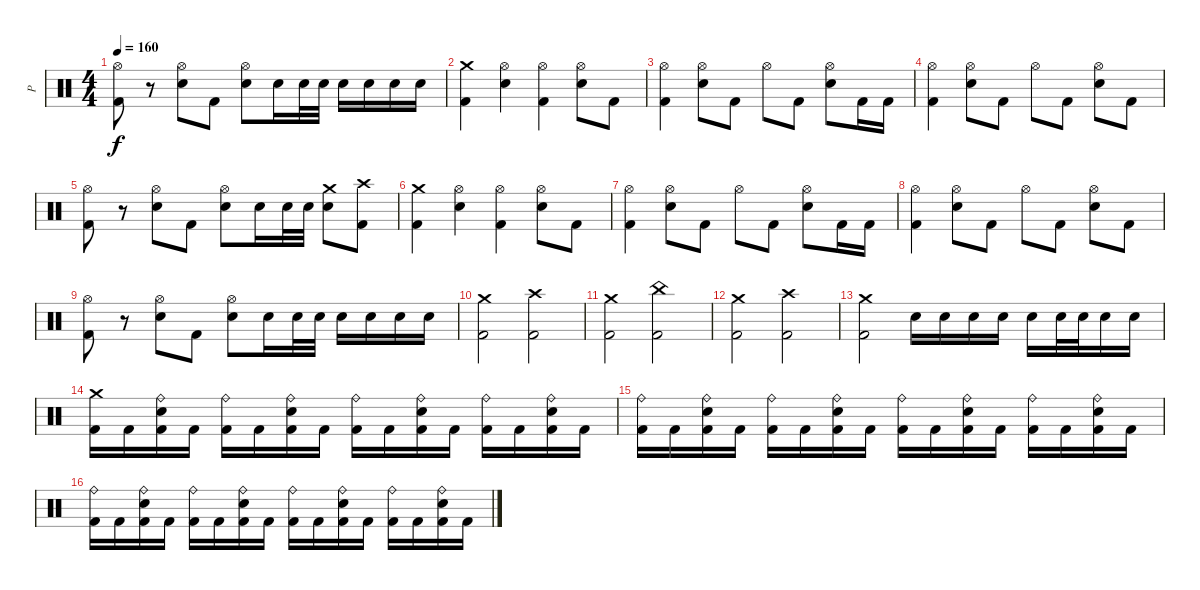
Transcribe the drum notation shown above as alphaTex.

\track ("P" "P") {instrument percussion}
\staff {score}
\articulation defaults
\ts (4 4)
\tempo 160
\clef neutral
\ks c
("Hi-Hat (open)" "Kick (hit) 2").8{dy f} r.8 ("Hi-Hat (open)" "Electric Snare (hit)").8 "Kick (hit) 2".8 ("Hi-Hat (open)" "Electric Snare (hit)").8 "Electric Snare (hit)".16 "Electric Snare (hit)".32 "Electric Snare (hit)".32 "Electric Snare (hit)".16 "Electric Snare (hit)".16 "Electric Snare (hit)".16 "Electric Snare (hit)".16 |
("Crash medium (hit)" "Kick (hit) 2").4 ("Hi-Hat (open)" "Electric Snare (hit)").4 ("Hi-Hat (open)" "Kick (hit) 2").4 ("Hi-Hat (open)" "Electric Snare (hit)").8 "Kick (hit) 2".8 |
("Hi-Hat (open)" "Kick (hit) 2").4 ("Hi-Hat (open)" "Electric Snare (hit)").8 "Kick (hit) 2".8 "Hi-Hat (open)".8 "Kick (hit) 2".8 ("Hi-Hat (open)" "Electric Snare (hit)").8 "Kick (hit) 2".16 "Kick (hit) 2".16 |
("Hi-Hat (open)" "Kick (hit) 2").4 ("Hi-Hat (open)" "Electric Snare (hit)").8 "Kick (hit) 2".8 "Hi-Hat (open)".8 "Kick (hit) 2".8 ("Hi-Hat (open)" "Electric Snare (hit)").8 "Kick (hit) 2".8 |
("Hi-Hat (open)" "Kick (hit) 2").8 r.8 ("Hi-Hat (open)" "Electric Snare (hit)").8 "Kick (hit) 2".8 ("Hi-Hat (open)" "Electric Snare (hit)").8 "Electric Snare (hit)".16 "Electric Snare (hit)".32 "Electric Snare (hit)".32 ("Crash medium (hit)" "Electric Snare (hit)").8 ("Crash high (hit)" "Kick (hit) 2").8 |
("Crash medium (hit)" "Kick (hit) 2").4 ("Hi-Hat (open)" "Electric Snare (hit)").4 ("Hi-Hat (open)" "Kick (hit) 2").4 ("Hi-Hat (open)" "Electric Snare (hit)").8 "Kick (hit) 2".8 |
("Hi-Hat (open)" "Kick (hit) 2").4 ("Hi-Hat (open)" "Electric Snare (hit)").8 "Kick (hit) 2".8 "Hi-Hat (open)".8 "Kick (hit) 2".8 ("Hi-Hat (open)" "Electric Snare (hit)").8 "Kick (hit) 2".16 "Kick (hit) 2".16 |
("Hi-Hat (open)" "Kick (hit) 2").4 ("Hi-Hat (open)" "Electric Snare (hit)").8 "Kick (hit) 2".8 "Hi-Hat (open)".8 "Kick (hit) 2".8 ("Hi-Hat (open)" "Electric Snare (hit)").8 "Kick (hit) 2".8 |
("Hi-Hat (open)" "Kick (hit) 2").8 r.8 ("Hi-Hat (open)" "Electric Snare (hit)").8 "Kick (hit) 2".8 ("Hi-Hat (open)" "Electric Snare (hit)").8 "Electric Snare (hit)".16 "Electric Snare (hit)".32 "Electric Snare (hit)".32 "Electric Snare (hit)".16 "Electric Snare (hit)".16 "Electric Snare (hit)".16 "Electric Snare (hit)".16 |
\section ("" "")
("Crash medium (hit)" "Kick (hit) 2").2 ("Crash high (hit)" "Kick (hit) 2").2 |
("Crash medium (hit)" "Kick (hit) 2").2 ("China (hit)" "Kick (hit) 2").2 |
("Crash medium (hit)" "Kick (hit) 2").2 ("Crash high (hit)" "Kick (hit) 2").2 |
("Crash medium (hit)" "Kick (hit) 2").2 "Electric Snare (hit)".16 "Electric Snare (hit)".16 "Electric Snare (hit)".16 "Electric Snare (hit)".16 "Electric Snare (hit)".16 "Electric Snare (hit)".32 "Electric Snare (hit)".32 "Electric Snare (hit)".16 "Electric Snare (hit)".16 |
\section ("" "")
("Crash medium (hit)" "Kick (hit) 2").16 "Kick (hit) 2".16 ("Ride (bell)" "Electric Snare (hit)" "Kick (hit) 2").16 "Kick (hit) 2".16 ("Ride (bell)" "Kick (hit) 2").16 "Kick (hit) 2".16 ("Ride (bell)" "Electric Snare (hit)" "Kick (hit) 2").16 "Kick (hit) 2".16 ("Ride (bell)" "Kick (hit) 2").16 "Kick (hit) 2".16 ("Ride (bell)" "Electric Snare (hit)" "Kick (hit) 2").16 "Kick (hit) 2".16 ("Ride (bell)" "Kick (hit) 2").16 "Kick (hit) 2".16 ("Ride (bell)" "Electric Snare (hit)" "Kick (hit) 2").16 "Kick (hit) 2".16 |
("Ride (bell)" "Kick (hit) 2").16 "Kick (hit) 2".16 ("Ride (bell)" "Electric Snare (hit)" "Kick (hit) 2").16 "Kick (hit) 2".16 ("Ride (bell)" "Kick (hit) 2").16 "Kick (hit) 2".16 ("Ride (bell)" "Electric Snare (hit)" "Kick (hit) 2").16 "Kick (hit) 2".16 ("Ride (bell)" "Kick (hit) 2").16 "Kick (hit) 2".16 ("Ride (bell)" "Electric Snare (hit)" "Kick (hit) 2").16 "Kick (hit) 2".16 ("Ride (bell)" "Kick (hit) 2").16 "Kick (hit) 2".16 ("Ride (bell)" "Electric Snare (hit)" "Kick (hit) 2").16 "Kick (hit) 2".16 |
("Ride (bell)" "Kick (hit) 2").16 "Kick (hit) 2".16 ("Ride (bell)" "Electric Snare (hit)" "Kick (hit) 2").16 "Kick (hit) 2".16 ("Ride (bell)" "Kick (hit) 2").16 "Kick (hit) 2".16 ("Ride (bell)" "Electric Snare (hit)" "Kick (hit) 2").16 "Kick (hit) 2".16 ("Ride (bell)" "Kick (hit) 2").16 "Kick (hit) 2".16 ("Ride (bell)" "Electric Snare (hit)" "Kick (hit) 2").16 "Kick (hit) 2".16 ("Ride (bell)" "Kick (hit) 2").16 "Kick (hit) 2".16 ("Ride (bell)" "Electric Snare (hit)" "Kick (hit) 2").16 "Kick (hit) 2".16
